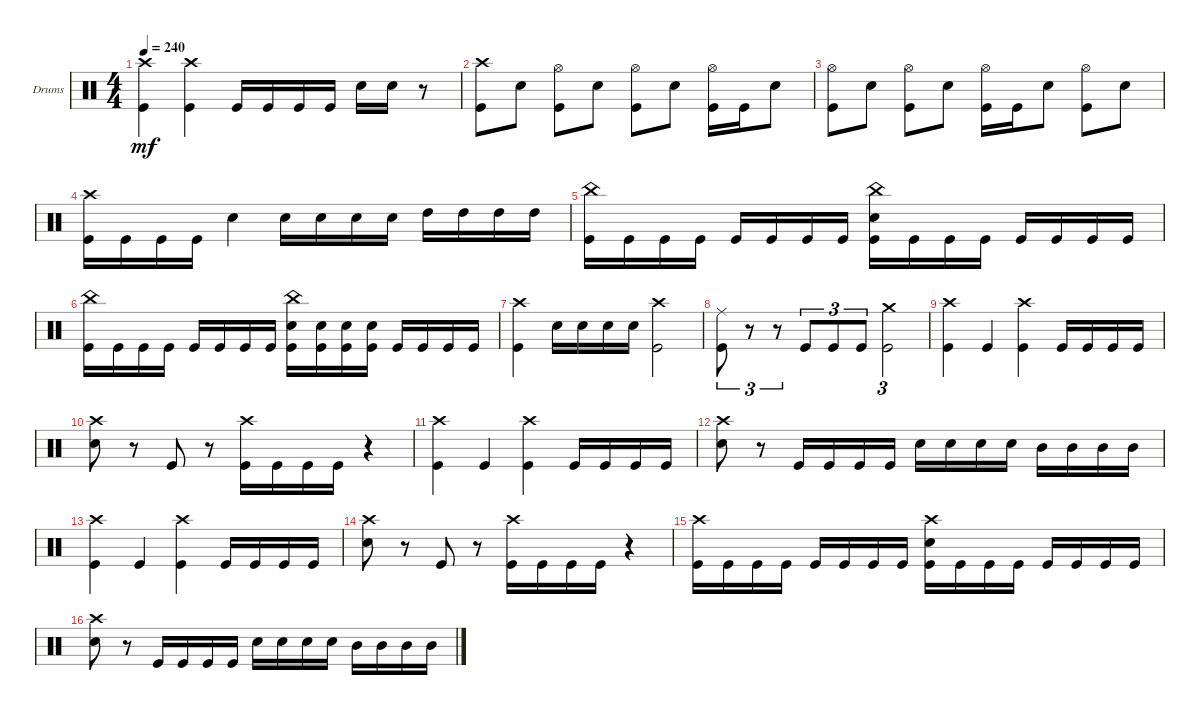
\defaultSystemsLayout 4
\bracketExtendMode groupsimilarinstruments
\firstSystemTrackNameOrientation horizontal
\otherSystemsTrackNameOrientation horizontal
\track ("Drumkit" "Drums") {instrument percussion}
\staff {score}
\articulation defaults
\ts (4 4)
\tempo 240
\clef neutral
\scale
0.474178
\ks c
("Crash high (hit)" "Kick (hit)").4{dy mf} ("Kick (hit)" "Crash high (hit)").4 "Kick (hit)".16 "Kick (hit)".16 "Kick (hit)".16 "Kick (hit)".16 "Snare (hit) 2".16 "Snare (hit) 2".16 r.8 |
\scale
0.262911 ("Crash high (hit)" "Kick (hit)").8 "Snare (hit) 2".8 ("Kick (hit)" "Hi-Hat (open)").8 "Snare (hit) 2".8 ("Kick (hit)" "Hi-Hat (open)").8 "Snare (hit) 2".8 ("Kick (hit)" "Hi-Hat (open)").16 "Kick (hit)".16 "Snare (hit) 2".8 |
\scale
0.262911 ("Kick (hit)" "Hi-Hat (open)").8 "Snare (hit) 2".8 ("Kick (hit)" "Hi-Hat (open)").8 "Snare (hit) 2".8 ("Kick (hit)" "Hi-Hat (open)").16 "Kick (hit)".16 "Snare (hit) 2".8 ("Kick (hit)" "Hi-Hat (open)").8 "Snare (hit) 2".8 |
\scale
0.333333 ("Kick (hit)" "Crash high (hit)").16 "Kick (hit)".16 "Kick (hit)".16 "Kick (hit)".16 "Snare (hit) 2".4 "Snare (hit) 2".16 "Snare (hit) 2".16 "Snare (hit) 2".16 "Snare (hit) 2".16 "High Tom (hit)".16 "High Tom (hit)".16 "High Tom (hit)".16 "High Tom (hit)".16 |
\scale
0.333333 ("Kick (hit)" "China (hit)").16 "Kick (hit)".16 "Kick (hit)".16 "Kick (hit)".16 "Kick (hit)".16 "Kick (hit)".16 "Kick (hit)".16 "Kick (hit)".16 ("Kick (hit)" "Snare (hit) 2" "China (hit)").16 "Kick (hit)".16 "Kick (hit)".16 "Kick (hit)".16 "Kick (hit)".16 "Kick (hit)".16 "Kick (hit)".16 "Kick (hit)".16 |
\scale
0.333333 ("Kick (hit)" "China (hit)").16 "Kick (hit)".16 "Kick (hit)".16 "Kick (hit)".16 "Kick (hit)".16 "Kick (hit)".16 "Kick (hit)".16 "Kick (hit)".16 ("Kick (hit)" "Snare (hit) 2" "China (hit)").16 ("Kick (hit)" "Snare (hit) 2").16 ("Kick (hit)" "Snare (hit) 2").16 ("Kick (hit)" "Snare (hit) 2").16 "Kick (hit)".16 "Kick (hit)".16 "Kick (hit)".16 "Kick (hit)".16 |
\scale
0.333333 ("Crash high (hit)" "Kick (hit)").4 "Snare (hit) 2".16 "Snare (hit) 2".16 "Snare (hit) 2".16 "Snare (hit) 2".16 ("Crash high (hit)" "Kick (hit)").2 |
\scale
0.333333 ("Ride (middle)" "Kick (hit)").8{tu (3 2)} r.8{tu (3 2)} r.8{tu (3 2)} "Kick (hit)".8{tu (3 2)} "Kick (hit)".8{tu (3 2)} "Kick (hit)".8{tu (3 2)} ("Kick (hit)" "Crash medium (hit)").2{tu (3 2)} |
\scale
0.333333 ("Kick (hit)" "Crash high (hit)").4 "Kick (hit)".4 ("Kick (hit)" "Crash high (hit)").4 "Kick (hit)".16 "Kick (hit)".16 "Kick (hit)".16 "Kick (hit)".16 |
\scale
0.333333 ("Snare (hit) 2" "Crash high (hit)").8 r.8 "Kick (hit)".8 r.8 ("Kick (hit)" "Crash high (hit)").16 "Kick (hit)".16 "Kick (hit)".16 "Kick (hit)".16 r.4 |
\scale
0.333333 ("Kick (hit)" "Crash high (hit)").4 "Kick (hit)".4 ("Kick (hit)" "Crash high (hit)").4 "Kick (hit)".16 "Kick (hit)".16 "Kick (hit)".16 "Kick (hit)".16 |
\scale
0.333333 ("Snare (hit) 2" "Crash high (hit)").8 r.8 "Kick (hit)".16 "Kick (hit)".16 "Kick (hit)".16 "Kick (hit)".16 "Snare (hit) 2".16 "Snare (hit) 2".16 "Snare (hit) 2".16 "Snare (hit) 2".16 "Mid Tom (hit)".16 "Mid Tom (hit)".16 "Mid Tom (hit)".16 "Mid Tom (hit)".16 |
\scale
0.333333 ("Kick (hit)" "Crash high (hit)").4 "Kick (hit)".4 ("Kick (hit)" "Crash high (hit)").4 "Kick (hit)".16 "Kick (hit)".16 "Kick (hit)".16 "Kick (hit)".16 |
\scale
0.333333 ("Snare (hit) 2" "Crash high (hit)").8 r.8 "Kick (hit)".8 r.8 ("Kick (hit)" "Crash high (hit)").16 "Kick (hit)".16 "Kick (hit)".16 "Kick (hit)".16 r.4 |
\scale
0.333333 ("Kick (hit)" "Crash high (hit)").16 "Kick (hit)".16 "Kick (hit)".16 "Kick (hit)".16 "Kick (hit)".16 "Kick (hit)".16 "Kick (hit)".16 "Kick (hit)".16 ("Kick (hit)" "Crash high (hit)" "Snare (hit) 2").16 "Kick (hit)".16 "Kick (hit)".16 "Kick (hit)".16 "Kick (hit)".16 "Kick (hit)".16 "Kick (hit)".16 "Kick (hit)".16 |
\scale
0.333333 ("Snare (hit) 2" "Crash high (hit)").8 r.8 "Kick (hit)".16 "Kick (hit)".16 "Kick (hit)".16 "Kick (hit)".16 "Snare (hit) 2".16 "Snare (hit) 2".16 "Snare (hit) 2".16 "Snare (hit) 2".16 "Mid Tom (hit)".16 "Mid Tom (hit)".16 "Mid Tom (hit)".16 "Mid Tom (hit)".16
